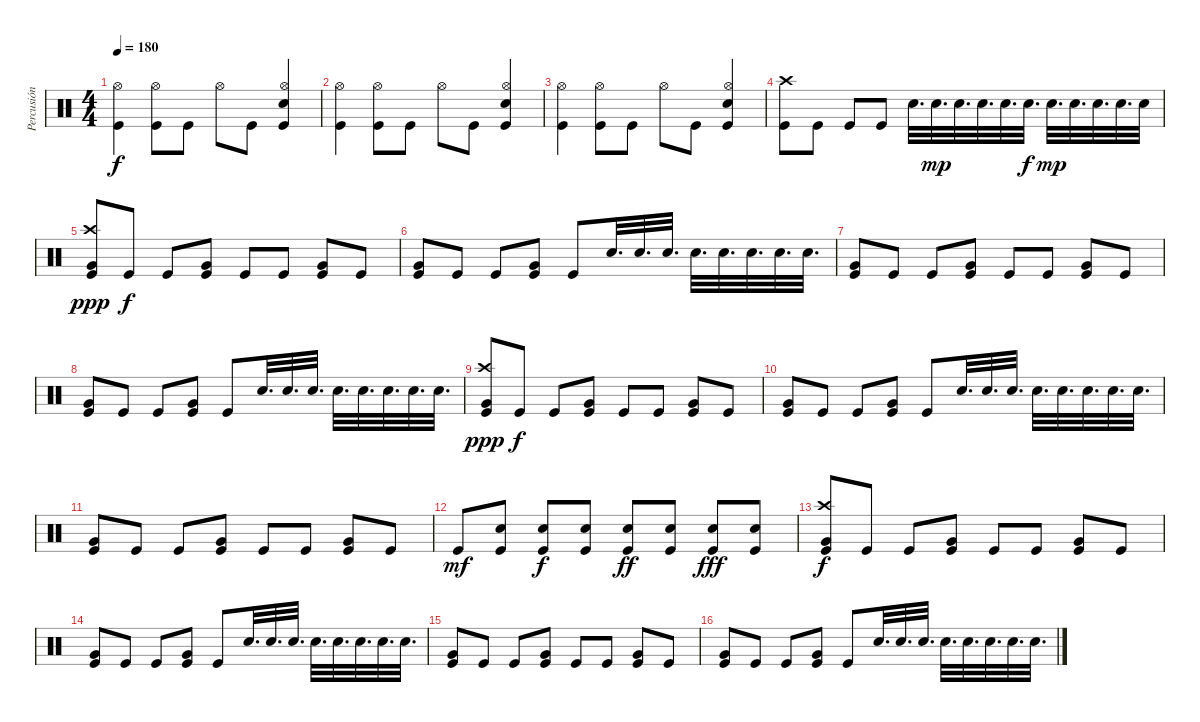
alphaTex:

\track ("Percusión" "Percusión") {instrument percussion}
\staff {score}
\articulation defaults
\ts (4 4)
\tempo 180
\clef neutral
\ks c
("Kick (hit)" "Hi-Hat (open)").4{dy f} ("Kick (hit)" "Hi-Hat (open)").8 "Kick (hit)".8 "Hi-Hat (open)".8 "Kick (hit)".8 ("Kick (hit)" "Snare (hit) 2" "Hi-Hat (open)").4 |
("Kick (hit)" "Hi-Hat (open)").4 ("Kick (hit)" "Hi-Hat (open)").8 "Kick (hit)".8 "Hi-Hat (open)".8 "Kick (hit)".8 ("Kick (hit)" "Snare (hit) 2" "Hi-Hat (open)").4 |
("Kick (hit)" "Hi-Hat (open)").4 ("Kick (hit)" "Hi-Hat (open)").8 "Kick (hit)".8 "Hi-Hat (open)".8 "Kick (hit)".8 ("Kick (hit)" "Snare (hit) 2" "Hi-Hat (open)").4 |
("Kick (hit)" "Crash high (hit)").8 "Kick (hit)".8 "Kick (hit)".8 "Kick (hit)".8 "Snare (hit) 2".32{d} "Snare (hit) 2".32{d dy mp} "Snare (hit) 2".32{d} "Snare (hit) 2".32{d} "Snare (hit) 2".32{d} "Snare (hit) 2".32{d dy f} "Snare (hit) 2".32{d dy mp} "Snare (hit) 2".32{d} "Snare (hit) 2".32{d} "Snare (hit) 2".32{d} "Snare (hit) 2".32 |
("Kick (hit)" "Very Low Tom (hit)" "Crash high (hit)").8{dy ppp} "Kick (hit)".8{dy f} "Kick (hit)".8 ("Kick (hit)" "Very Low Tom (hit)").8 "Kick (hit)".8 "Kick (hit)".8 ("Kick (hit)" "Very Low Tom (hit)").8 "Kick (hit)".8 |
("Kick (hit)" "Very Low Tom (hit)").8 "Kick (hit)".8 "Kick (hit)".8 ("Kick (hit)" "Very Low Tom (hit)").8 "Kick (hit)".8 "Snare (hit) 2".32{d} "Snare (hit) 2".32{d} "Snare (hit) 2".32{d} "Snare (hit) 2".32{d} "Snare (hit) 2".32{d} "Snare (hit) 2".32{d} "Snare (hit) 2".32{d} "Snare (hit) 2".32{d} |
("Kick (hit)" "Very Low Tom (hit)").8 "Kick (hit)".8 "Kick (hit)".8 ("Kick (hit)" "Very Low Tom (hit)").8 "Kick (hit)".8 "Kick (hit)".8 ("Kick (hit)" "Very Low Tom (hit)").8 "Kick (hit)".8 |
("Kick (hit)" "Very Low Tom (hit)").8 "Kick (hit)".8 "Kick (hit)".8 ("Kick (hit)" "Very Low Tom (hit)").8 "Kick (hit)".8 "Snare (hit) 2".32{d} "Snare (hit) 2".32{d} "Snare (hit) 2".32{d} "Snare (hit) 2".32{d} "Snare (hit) 2".32{d} "Snare (hit) 2".32{d} "Snare (hit) 2".32{d} "Snare (hit) 2".32{d} |
("Kick (hit)" "Very Low Tom (hit)" "Crash high (hit)").8{dy ppp} "Kick (hit)".8{dy f} "Kick (hit)".8 ("Kick (hit)" "Very Low Tom (hit)").8 "Kick (hit)".8 "Kick (hit)".8 ("Kick (hit)" "Very Low Tom (hit)").8 "Kick (hit)".8 |
("Kick (hit)" "Very Low Tom (hit)").8 "Kick (hit)".8 "Kick (hit)".8 ("Kick (hit)" "Very Low Tom (hit)").8 "Kick (hit)".8 "Snare (hit) 2".32{d} "Snare (hit) 2".32{d} "Snare (hit) 2".32{d} "Snare (hit) 2".32{d} "Snare (hit) 2".32{d} "Snare (hit) 2".32{d} "Snare (hit) 2".32{d} "Snare (hit) 2".32{d} |
("Kick (hit)" "Very Low Tom (hit)").8 "Kick (hit)".8 "Kick (hit)".8 ("Kick (hit)" "Very Low Tom (hit)").8 "Kick (hit)".8 "Kick (hit)".8 ("Kick (hit)" "Very Low Tom (hit)").8 "Kick (hit)".8 |
"Kick (hit)".8{dy mf} ("Kick (hit)" "Snare (hit) 2").8 ("Kick (hit)" "Snare (hit) 2").8{dy f} ("Kick (hit)" "Snare (hit) 2").8 ("Kick (hit)" "Snare (hit) 2").8{dy ff} ("Kick (hit)" "Snare (hit) 2").8 ("Kick (hit)" "Snare (hit) 2").8{dy fff} ("Kick (hit)" "Snare (hit) 2").8 |
("Kick (hit)" "Very Low Tom (hit)" "Crash high (hit)").8{dy f} "Kick (hit)".8 "Kick (hit)".8 ("Kick (hit)" "Very Low Tom (hit)").8 "Kick (hit)".8 "Kick (hit)".8 ("Kick (hit)" "Very Low Tom (hit)").8 "Kick (hit)".8 |
("Kick (hit)" "Very Low Tom (hit)").8 "Kick (hit)".8 "Kick (hit)".8 ("Kick (hit)" "Very Low Tom (hit)").8 "Kick (hit)".8 "Snare (hit) 2".32{d} "Snare (hit) 2".32{d} "Snare (hit) 2".32{d} "Snare (hit) 2".32{d} "Snare (hit) 2".32{d} "Snare (hit) 2".32{d} "Snare (hit) 2".32{d} "Snare (hit) 2".32{d} |
("Kick (hit)" "Very Low Tom (hit)").8 "Kick (hit)".8 "Kick (hit)".8 ("Kick (hit)" "Very Low Tom (hit)").8 "Kick (hit)".8 "Kick (hit)".8 ("Kick (hit)" "Very Low Tom (hit)").8 "Kick (hit)".8 |
("Kick (hit)" "Very Low Tom (hit)").8 "Kick (hit)".8 "Kick (hit)".8 ("Kick (hit)" "Very Low Tom (hit)").8 "Kick (hit)".8 "Snare (hit) 2".32{d} "Snare (hit) 2".32{d} "Snare (hit) 2".32{d} "Snare (hit) 2".32{d} "Snare (hit) 2".32{d} "Snare (hit) 2".32{d} "Snare (hit) 2".32{d} "Snare (hit) 2".32{d}
